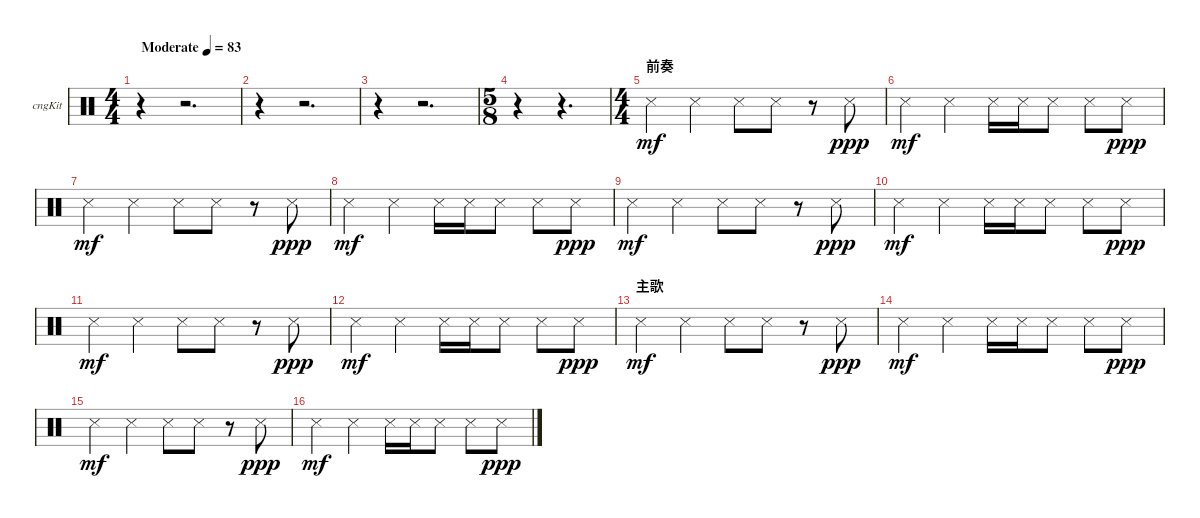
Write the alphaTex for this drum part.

\bracketExtendMode groupsimilarinstruments
\firstSystemTrackNameOrientation horizontal
\otherSystemsTrackNameOrientation horizontal
\track ("Congas" "cngKit") {instrument percussion}
\staff {score}
\articulation defaults
\ts (4 4)
\beaming (8 2 2 2 2)
\tempo (83 "Moderate")
\clef neutral
\ks c
r.4{dy mf} r.2{d} |
r.4 r.2{d} |
r.4 r.2{d} |
\ts (5 8)
\beaming (8 3 2)
r.4 r.4{d} |
\ts (4 4)
\beaming (8 2 2 2 2)
\section ("" "前奏")
"Snare (side stick) 3".4 "Snare (side stick) 3".4 "Snare (side stick) 3".8 "Snare (side stick) 3".8 r.8 "Snare (side stick) 3".8{dy ppp} |
"Snare (side stick) 3".4{dy mf} "Snare (side stick) 3".4 "Snare (side stick) 3".16 "Snare (side stick) 3".16 "Snare (side stick) 3".8 "Snare (side stick) 3".8 "Snare (side stick) 3".8{dy ppp} |
"Snare (side stick) 3".4{dy mf} "Snare (side stick) 3".4 "Snare (side stick) 3".8 "Snare (side stick) 3".8 r.8 "Snare (side stick) 3".8{dy ppp} |
"Snare (side stick) 3".4{dy mf} "Snare (side stick) 3".4 "Snare (side stick) 3".16 "Snare (side stick) 3".16 "Snare (side stick) 3".8 "Snare (side stick) 3".8 "Snare (side stick) 3".8{dy ppp} |
"Snare (side stick) 3".4{dy mf} "Snare (side stick) 3".4 "Snare (side stick) 3".8 "Snare (side stick) 3".8 r.8 "Snare (side stick) 3".8{dy ppp} |
"Snare (side stick) 3".4{dy mf} "Snare (side stick) 3".4 "Snare (side stick) 3".16 "Snare (side stick) 3".16 "Snare (side stick) 3".8 "Snare (side stick) 3".8 "Snare (side stick) 3".8{dy ppp} |
"Snare (side stick) 3".4{dy mf} "Snare (side stick) 3".4 "Snare (side stick) 3".8 "Snare (side stick) 3".8 r.8 "Snare (side stick) 3".8{dy ppp} |
"Snare (side stick) 3".4{dy mf} "Snare (side stick) 3".4 "Snare (side stick) 3".16 "Snare (side stick) 3".16 "Snare (side stick) 3".8 "Snare (side stick) 3".8 "Snare (side stick) 3".8{dy ppp} |
\section ("" "主歌")
"Snare (side stick) 3".4{dy mf} "Snare (side stick) 3".4 "Snare (side stick) 3".8 "Snare (side stick) 3".8 r.8 "Snare (side stick) 3".8{dy ppp} |
"Snare (side stick) 3".4{dy mf} "Snare (side stick) 3".4 "Snare (side stick) 3".16 "Snare (side stick) 3".16 "Snare (side stick) 3".8 "Snare (side stick) 3".8 "Snare (side stick) 3".8{dy ppp} |
"Snare (side stick) 3".4{dy mf} "Snare (side stick) 3".4 "Snare (side stick) 3".8 "Snare (side stick) 3".8 r.8 "Snare (side stick) 3".8{dy ppp} |
"Snare (side stick) 3".4{dy mf} "Snare (side stick) 3".4 "Snare (side stick) 3".16 "Snare (side stick) 3".16 "Snare (side stick) 3".8 "Snare (side stick) 3".8 "Snare (side stick) 3".8{dy ppp}
